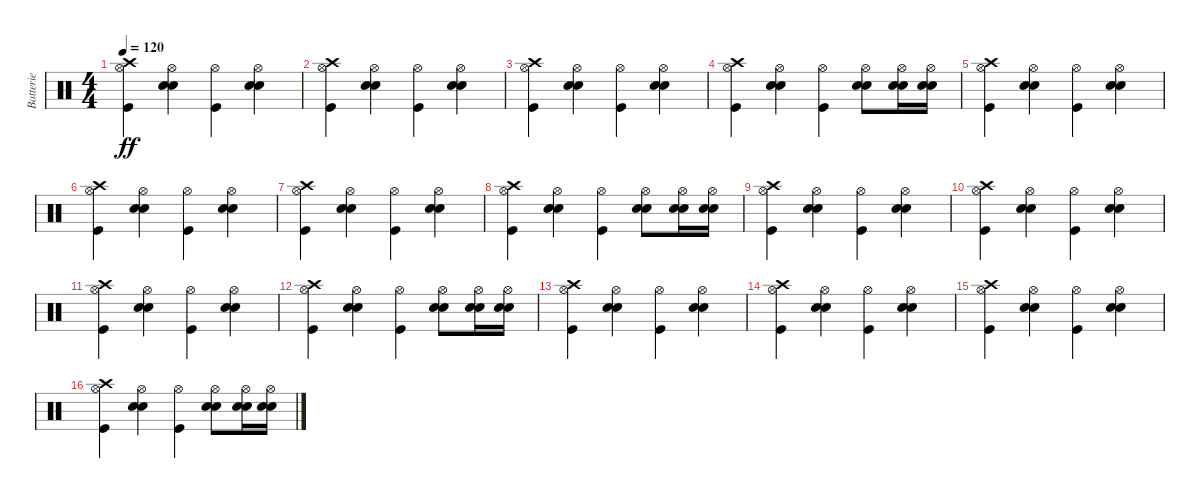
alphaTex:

\track ("Batterie" "Batterie") {instrument percussion}
\staff {score}
\articulation defaults
\ts (4 4)
\tempo 120
\clef neutral
\ks c
("Kick (hit)" "Hi-Hat (open)" "Crash high (hit)").4{dy ff} ("Electric Snare (hit)" "Electric Snare (hit)" "Hi-Hat (open)").4 ("Kick (hit)" "Hi-Hat (open)").4 ("Electric Snare (hit)" "Electric Snare (hit)" "Hi-Hat (open)").4 |
("Kick (hit)" "Hi-Hat (open)" "Crash high (hit)").4 ("Electric Snare (hit)" "Electric Snare (hit)" "Hi-Hat (open)").4 ("Kick (hit)" "Hi-Hat (open)").4 ("Electric Snare (hit)" "Electric Snare (hit)" "Hi-Hat (open)").4 |
("Kick (hit)" "Hi-Hat (open)" "Crash high (hit)").4 ("Electric Snare (hit)" "Electric Snare (hit)" "Hi-Hat (open)").4 ("Kick (hit)" "Hi-Hat (open)").4 ("Electric Snare (hit)" "Electric Snare (hit)" "Hi-Hat (open)").4 |
("Kick (hit)" "Hi-Hat (open)" "Crash high (hit)").4 ("Electric Snare (hit)" "Electric Snare (hit)" "Hi-Hat (open)").4 ("Kick (hit)" "Hi-Hat (open)").4 ("Electric Snare (hit)" "Electric Snare (hit)" "Hi-Hat (open)").8 ("Electric Snare (hit)" "Electric Snare (hit)" "Hi-Hat (open)").16 ("Electric Snare (hit)" "Electric Snare (hit)" "Hi-Hat (open)").16 |
("Kick (hit)" "Hi-Hat (open)" "Crash high (hit)").4 ("Electric Snare (hit)" "Electric Snare (hit)" "Hi-Hat (open)").4 ("Kick (hit)" "Hi-Hat (open)").4 ("Electric Snare (hit)" "Electric Snare (hit)" "Hi-Hat (open)").4 |
("Kick (hit)" "Hi-Hat (open)" "Crash high (hit)").4 ("Electric Snare (hit)" "Electric Snare (hit)" "Hi-Hat (open)").4 ("Kick (hit)" "Hi-Hat (open)").4 ("Electric Snare (hit)" "Electric Snare (hit)" "Hi-Hat (open)").4 |
("Kick (hit)" "Hi-Hat (open)" "Crash high (hit)").4 ("Electric Snare (hit)" "Electric Snare (hit)" "Hi-Hat (open)").4 ("Kick (hit)" "Hi-Hat (open)").4 ("Electric Snare (hit)" "Electric Snare (hit)" "Hi-Hat (open)").4 |
("Kick (hit)" "Hi-Hat (open)" "Crash high (hit)").4 ("Electric Snare (hit)" "Electric Snare (hit)" "Hi-Hat (open)").4 ("Kick (hit)" "Hi-Hat (open)").4 ("Electric Snare (hit)" "Electric Snare (hit)" "Hi-Hat (open)").8 ("Electric Snare (hit)" "Electric Snare (hit)" "Hi-Hat (open)").16 ("Electric Snare (hit)" "Electric Snare (hit)" "Hi-Hat (open)").16 |
("Kick (hit)" "Hi-Hat (open)" "Crash high (hit)").4 ("Electric Snare (hit)" "Electric Snare (hit)" "Hi-Hat (open)").4 ("Kick (hit)" "Hi-Hat (open)").4 ("Electric Snare (hit)" "Electric Snare (hit)" "Hi-Hat (open)").4 |
("Kick (hit)" "Hi-Hat (open)" "Crash high (hit)").4 ("Electric Snare (hit)" "Electric Snare (hit)" "Hi-Hat (open)").4 ("Kick (hit)" "Hi-Hat (open)").4 ("Electric Snare (hit)" "Electric Snare (hit)" "Hi-Hat (open)").4 |
("Kick (hit)" "Hi-Hat (open)" "Crash high (hit)").4 ("Electric Snare (hit)" "Electric Snare (hit)" "Hi-Hat (open)").4 ("Kick (hit)" "Hi-Hat (open)").4 ("Electric Snare (hit)" "Electric Snare (hit)" "Hi-Hat (open)").4 |
("Kick (hit)" "Hi-Hat (open)" "Crash high (hit)").4 ("Electric Snare (hit)" "Electric Snare (hit)" "Hi-Hat (open)").4 ("Kick (hit)" "Hi-Hat (open)").4 ("Electric Snare (hit)" "Electric Snare (hit)" "Hi-Hat (open)").8 ("Electric Snare (hit)" "Electric Snare (hit)" "Hi-Hat (open)").16 ("Electric Snare (hit)" "Electric Snare (hit)" "Hi-Hat (open)").16 |
("Kick (hit)" "Hi-Hat (open)" "Crash high (hit)").4 ("Electric Snare (hit)" "Electric Snare (hit)" "Hi-Hat (open)").4 ("Kick (hit)" "Hi-Hat (open)").4 ("Electric Snare (hit)" "Electric Snare (hit)" "Hi-Hat (open)").4 |
("Kick (hit)" "Hi-Hat (open)" "Crash high (hit)").4 ("Electric Snare (hit)" "Electric Snare (hit)" "Hi-Hat (open)").4 ("Kick (hit)" "Hi-Hat (open)").4 ("Electric Snare (hit)" "Electric Snare (hit)" "Hi-Hat (open)").4 |
("Kick (hit)" "Hi-Hat (open)" "Crash high (hit)").4{volume 0} ("Electric Snare (hit)" "Electric Snare (hit)" "Hi-Hat (open)").4 ("Kick (hit)" "Hi-Hat (open)").4 ("Electric Snare (hit)" "Electric Snare (hit)" "Hi-Hat (open)").4 |
("Kick (hit)" "Hi-Hat (open)" "Crash high (hit)").4 ("Electric Snare (hit)" "Electric Snare (hit)" "Hi-Hat (open)").4 ("Kick (hit)" "Hi-Hat (open)").4 ("Electric Snare (hit)" "Electric Snare (hit)" "Hi-Hat (open)").8 ("Electric Snare (hit)" "Electric Snare (hit)" "Hi-Hat (open)").16 ("Electric Snare (hit)" "Electric Snare (hit)" "Hi-Hat (open)").16
